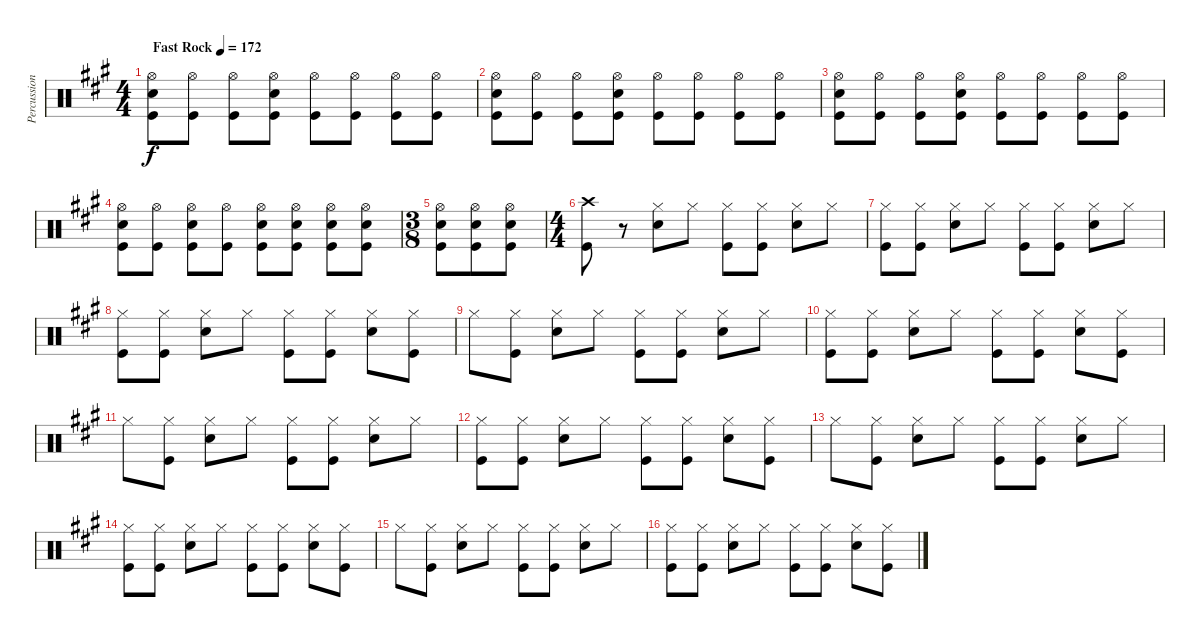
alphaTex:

\track ("Percussion" "Percussion") {instrument percussion}
\staff {score}
\articulation defaults
\ts (4 4)
\tempo (172 "Fast Rock")
\clef neutral
\ks a
("Hi-Hat (open)" "Snare (hit) 2" "Kick (hit)").8{dy f} ("Hi-Hat (open)" "Kick (hit)").8 ("Hi-Hat (open)" "Kick (hit)").8 ("Hi-Hat (open)" "Snare (hit) 2" "Kick (hit)").8 ("Hi-Hat (open)" "Kick (hit)").8 ("Hi-Hat (open)" "Kick (hit)").8 ("Hi-Hat (open)" "Kick (hit)").8 ("Hi-Hat (open)" "Kick (hit)").8 |
("Hi-Hat (open)" "Snare (hit) 2" "Kick (hit)").8 ("Hi-Hat (open)" "Kick (hit)").8 ("Hi-Hat (open)" "Kick (hit)").8 ("Hi-Hat (open)" "Snare (hit) 2" "Kick (hit)").8 ("Hi-Hat (open)" "Kick (hit)").8 ("Hi-Hat (open)" "Kick (hit)").8 ("Hi-Hat (open)" "Kick (hit)").8 ("Hi-Hat (open)" "Kick (hit)").8 |
("Hi-Hat (open)" "Snare (hit) 2" "Kick (hit)").8 ("Hi-Hat (open)" "Kick (hit)").8 ("Hi-Hat (open)" "Kick (hit)").8 ("Hi-Hat (open)" "Snare (hit) 2" "Kick (hit)").8 ("Hi-Hat (open)" "Kick (hit)").8 ("Hi-Hat (open)" "Kick (hit)").8 ("Hi-Hat (open)" "Kick (hit)").8 ("Hi-Hat (open)" "Kick (hit)").8 |
("Hi-Hat (open)" "Snare (hit) 2" "Kick (hit)").8 ("Hi-Hat (open)" "Kick (hit)").8 ("Hi-Hat (open)" "Snare (hit) 2" "Kick (hit)").8 ("Hi-Hat (open)" "Kick (hit)").8 ("Hi-Hat (open)" "Snare (hit) 2" "Kick (hit)").8 ("Hi-Hat (open)" "Snare (hit) 2" "Kick (hit)").8 ("Hi-Hat (open)" "Snare (hit) 2" "Kick (hit)").8 ("Hi-Hat (open)" "Snare (hit) 2" "Kick (hit)").8 |
\ts (3 8)
("Hi-Hat (open)" "Snare (hit) 2" "Kick (hit)").8 ("Hi-Hat (open)" "Snare (hit) 2" "Kick (hit)").8 ("Hi-Hat (open)" "Snare (hit) 2" "Kick (hit)").8 |
\ts (4 4)
("Crash high (hit)" "Kick (hit)").8 r.8 ("Hi-Hat (closed)" "Snare (hit) 2").8 "Hi-Hat (closed)".8 ("Hi-Hat (closed)" "Kick (hit)").8 ("Hi-Hat (closed)" "Kick (hit)").8 ("Hi-Hat (closed)" "Snare (hit) 2").8 "Hi-Hat (closed)".8 |
("Hi-Hat (closed)" "Kick (hit)").8 ("Hi-Hat (closed)" "Kick (hit)").8 ("Hi-Hat (closed)" "Snare (hit) 2").8 "Hi-Hat (closed)".8 ("Hi-Hat (closed)" "Kick (hit)").8 ("Hi-Hat (closed)" "Kick (hit)").8 ("Hi-Hat (closed)" "Snare (hit) 2").8 "Hi-Hat (closed)".8 |
("Hi-Hat (closed)" "Kick (hit)").8 ("Hi-Hat (closed)" "Kick (hit)").8 ("Hi-Hat (closed)" "Snare (hit) 2").8 "Hi-Hat (closed)".8 ("Hi-Hat (closed)" "Kick (hit)").8 ("Hi-Hat (closed)" "Kick (hit)").8 ("Hi-Hat (closed)" "Snare (hit) 2").8 ("Hi-Hat (closed)" "Kick (hit)").8 |
"Hi-Hat (closed)".8 ("Hi-Hat (closed)" "Kick (hit)").8 ("Hi-Hat (closed)" "Snare (hit) 2").8 "Hi-Hat (closed)".8 ("Hi-Hat (closed)" "Kick (hit)").8 ("Hi-Hat (closed)" "Kick (hit)").8 ("Hi-Hat (closed)" "Snare (hit) 2").8 "Hi-Hat (closed)".8 |
("Hi-Hat (closed)" "Kick (hit)").8 ("Hi-Hat (closed)" "Kick (hit)").8 ("Hi-Hat (closed)" "Snare (hit) 2").8 "Hi-Hat (closed)".8 ("Hi-Hat (closed)" "Kick (hit)").8 ("Hi-Hat (closed)" "Kick (hit)").8 ("Hi-Hat (closed)" "Snare (hit) 2").8 ("Hi-Hat (closed)" "Kick (hit)").8 |
"Hi-Hat (closed)".8 ("Hi-Hat (closed)" "Kick (hit)").8 ("Hi-Hat (closed)" "Snare (hit) 2").8 "Hi-Hat (closed)".8 ("Hi-Hat (closed)" "Kick (hit)").8 ("Hi-Hat (closed)" "Kick (hit)").8 ("Hi-Hat (closed)" "Snare (hit) 2").8 "Hi-Hat (closed)".8 |
("Hi-Hat (closed)" "Kick (hit)").8 ("Hi-Hat (closed)" "Kick (hit)").8 ("Hi-Hat (closed)" "Snare (hit) 2").8 "Hi-Hat (closed)".8 ("Hi-Hat (closed)" "Kick (hit)").8 ("Hi-Hat (closed)" "Kick (hit)").8 ("Hi-Hat (closed)" "Snare (hit) 2").8 ("Hi-Hat (closed)" "Kick (hit)").8 |
"Hi-Hat (closed)".8 ("Hi-Hat (closed)" "Kick (hit)").8 ("Hi-Hat (closed)" "Snare (hit) 2").8 "Hi-Hat (closed)".8 ("Hi-Hat (closed)" "Kick (hit)").8 ("Hi-Hat (closed)" "Kick (hit)").8 ("Hi-Hat (closed)" "Snare (hit) 2").8 "Hi-Hat (closed)".8 |
("Hi-Hat (closed)" "Kick (hit)").8 ("Hi-Hat (closed)" "Kick (hit)").8 ("Hi-Hat (closed)" "Snare (hit) 2").8 "Hi-Hat (closed)".8 ("Hi-Hat (closed)" "Kick (hit)").8 ("Hi-Hat (closed)" "Kick (hit)").8 ("Hi-Hat (closed)" "Snare (hit) 2").8 ("Hi-Hat (closed)" "Kick (hit)").8 |
"Hi-Hat (closed)".8 ("Hi-Hat (closed)" "Kick (hit)").8 ("Hi-Hat (closed)" "Snare (hit) 2").8 "Hi-Hat (closed)".8 ("Hi-Hat (closed)" "Kick (hit)").8 ("Hi-Hat (closed)" "Kick (hit)").8 ("Hi-Hat (closed)" "Snare (hit) 2").8 "Hi-Hat (closed)".8 |
("Hi-Hat (closed)" "Kick (hit)").8 ("Hi-Hat (closed)" "Kick (hit)").8 ("Hi-Hat (closed)" "Snare (hit) 2").8 "Hi-Hat (closed)".8 ("Hi-Hat (closed)" "Kick (hit)").8 ("Hi-Hat (closed)" "Kick (hit)").8 ("Hi-Hat (closed)" "Snare (hit) 2").8 ("Hi-Hat (closed)" "Kick (hit)").8
